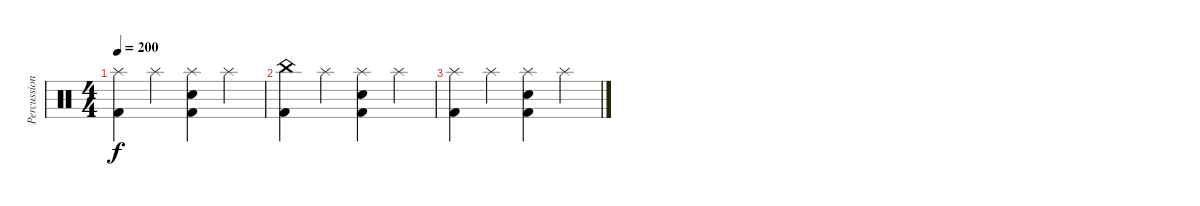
\track ("Percussion" "Percussion") {instrument percussion}
\staff {score}
\articulation defaults
\ts (4 4)
\tempo 200
\clef neutral
\ks c
("Splash (hit)" "Kick (hit) 2").4{dy f} "Splash (hit)".4 ("Splash (hit)" "Snare (hit) 2" "Kick (hit) 2").4 "Splash (hit)".4 |
("China (hit)" "Kick (hit) 2").4 "Splash (hit)".4 ("Splash (hit)" "Snare (hit) 2" "Kick (hit) 2").4 "Splash (hit)".4 |
("Splash (hit)" "Kick (hit) 2").4 "Splash (hit)".4 ("Splash (hit)" "Snare (hit) 2" "Kick (hit) 2").4 "Splash (hit)".4
